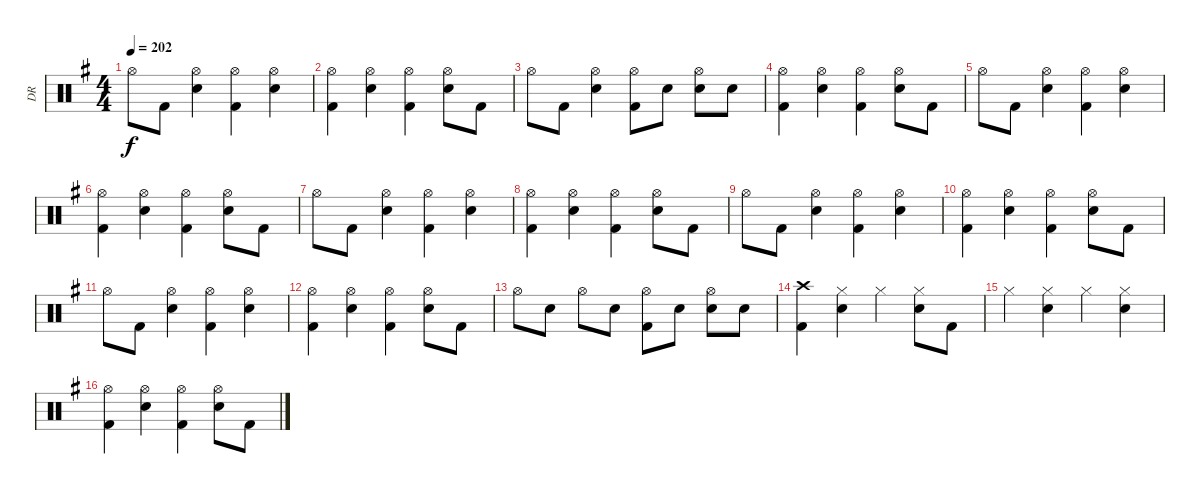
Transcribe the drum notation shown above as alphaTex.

\track ("DR" "DR") {instrument percussion}
\staff {score}
\articulation defaults
\ts (4 4)
\tempo 202
\clef neutral
\ks g "Hi-Hat (open)".8{dy f} "Kick (hit) 2".8
("Hi-Hat (open)" "Electric Snare (hit)").4 ("Hi-Hat (open)" "Kick (hit) 2").4 ("Hi-Hat (open)" "Electric Snare (hit)").4 |
("Hi-Hat (open)" "Kick (hit) 2").4 ("Hi-Hat (open)" "Electric Snare (hit)").4 ("Hi-Hat (open)" "Kick (hit) 2").4 ("Hi-Hat (open)" "Electric Snare (hit)").8 "Kick (hit) 2".8 |
"Hi-Hat (open)".8 "Kick (hit) 2".8 ("Hi-Hat (open)" "Electric Snare (hit)").4 ("Hi-Hat (open)" "Kick (hit) 2").8 "Electric Snare (hit)".8 ("Hi-Hat (open)" "Electric Snare (hit)").8 "Electric Snare (hit)".8 |
("Hi-Hat (open)" "Kick (hit) 2").4 ("Hi-Hat (open)" "Electric Snare (hit)").4 ("Hi-Hat (open)" "Kick (hit) 2").4 ("Hi-Hat (open)" "Electric Snare (hit)").8 "Kick (hit) 2".8 |
"Hi-Hat (open)".8 "Kick (hit) 2".8 ("Hi-Hat (open)" "Electric Snare (hit)").4 ("Hi-Hat (open)" "Kick (hit) 2").4 ("Hi-Hat (open)" "Electric Snare (hit)").4 |
("Hi-Hat (open)" "Kick (hit) 2").4 ("Hi-Hat (open)" "Electric Snare (hit)").4 ("Hi-Hat (open)" "Kick (hit) 2").4 ("Hi-Hat (open)" "Electric Snare (hit)").8 "Kick (hit) 2".8 |
"Hi-Hat (open)".8 "Kick (hit) 2".8 ("Hi-Hat (open)" "Electric Snare (hit)").4 ("Hi-Hat (open)" "Kick (hit) 2").4 ("Hi-Hat (open)" "Electric Snare (hit)").4 |
("Hi-Hat (open)" "Kick (hit) 2").4 ("Hi-Hat (open)" "Electric Snare (hit)").4 ("Hi-Hat (open)" "Kick (hit) 2").4 ("Hi-Hat (open)" "Electric Snare (hit)").8 "Kick (hit) 2".8 |
"Hi-Hat (open)".8 "Kick (hit) 2".8 ("Hi-Hat (open)" "Electric Snare (hit)").4 ("Hi-Hat (open)" "Kick (hit) 2").4 ("Hi-Hat (open)" "Electric Snare (hit)").4 |
("Hi-Hat (open)" "Kick (hit) 2").4 ("Hi-Hat (open)" "Electric Snare (hit)").4 ("Hi-Hat (open)" "Kick (hit) 2").4 ("Hi-Hat (open)" "Electric Snare (hit)").8 "Kick (hit) 2".8 |
"Hi-Hat (open)".8 "Kick (hit) 2".8 ("Hi-Hat (open)" "Electric Snare (hit)").4 ("Hi-Hat (open)" "Kick (hit) 2").4 ("Hi-Hat (open)" "Electric Snare (hit)").4 |
("Hi-Hat (open)" "Kick (hit) 2").4 ("Hi-Hat (open)" "Electric Snare (hit)").4 ("Hi-Hat (open)" "Kick (hit) 2").4 ("Hi-Hat (open)" "Electric Snare (hit)").8 "Kick (hit) 2".8 |
"Hi-Hat (open)".8 "Electric Snare (hit)".8 "Hi-Hat (open)".8 "Electric Snare (hit)".8 ("Hi-Hat (open)" "Kick (hit) 2").8 "Electric Snare (hit)".8 ("Hi-Hat (open)" "Electric Snare (hit)").8 "Electric Snare (hit)".8 |
("Crash high (hit)" "Kick (hit) 2").4 ("Hi-Hat (closed)" "Electric Snare (hit)").4 "Hi-Hat (closed)".4 ("Hi-Hat (closed)" "Electric Snare (hit)").8 "Kick (hit) 2".8 |
"Hi-Hat (closed)".4 ("Hi-Hat (closed)" "Electric Snare (hit)").4 "Hi-Hat (closed)".4 ("Hi-Hat (closed)" "Electric Snare (hit)").4 |
("Hi-Hat (open)" "Kick (hit) 2").4 ("Hi-Hat (open)" "Electric Snare (hit)").4 ("Hi-Hat (open)" "Kick (hit) 2").4 ("Hi-Hat (open)" "Electric Snare (hit)").8 "Kick (hit) 2".8
